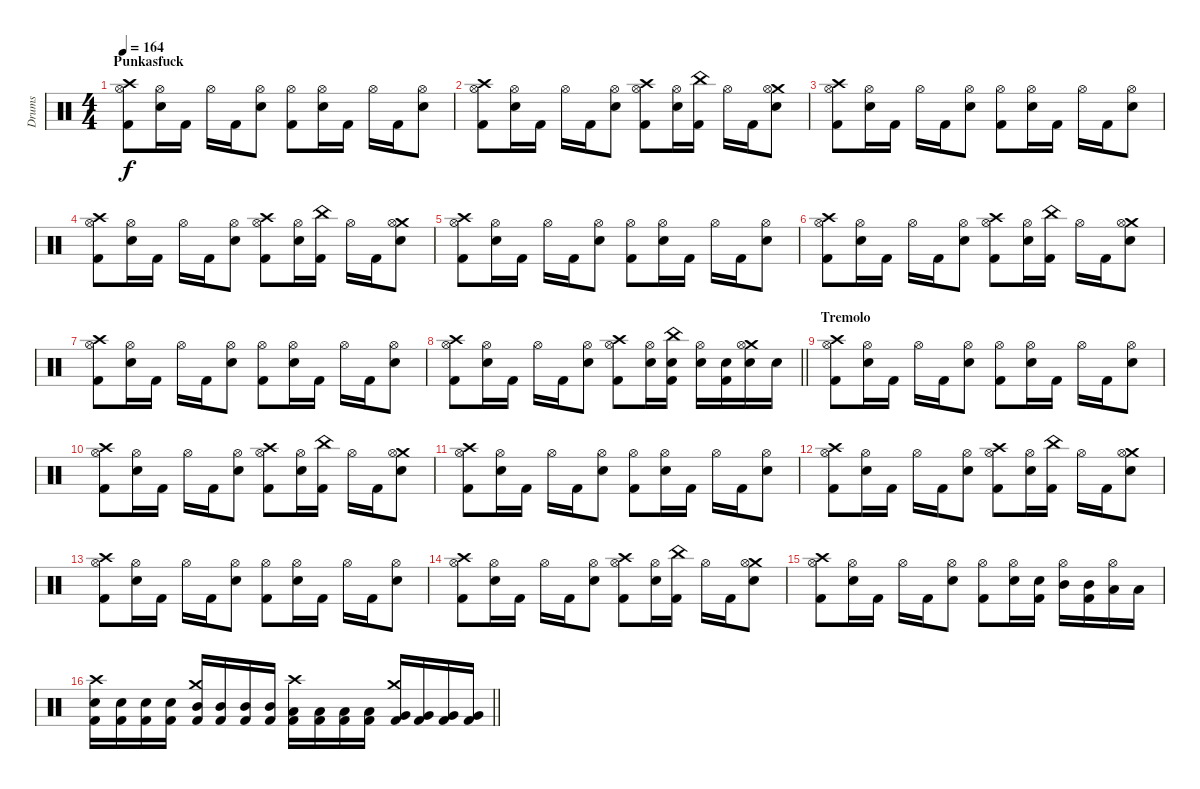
\track ("Drums" "Drums") {instrument percussion}
\staff {score}
\articulation defaults
\ts (4 4)
\section ("" "Punkasfuck")
\tempo 164
\clef neutral
\ks c
("Crash high (hit)" "Hi-Hat (open)" "Kick (hit) 2").8{dy f} ("Hi-Hat (open)" "Snare (hit) 2").16 "Kick (hit) 2".16 "Hi-Hat (open)".16 "Kick (hit) 2".16 ("Hi-Hat (open)" "Snare (hit) 2").8 ("Hi-Hat (open)" "Kick (hit) 2").8 ("Hi-Hat (open)" "Snare (hit) 2").16 "Kick (hit) 2".16 "Hi-Hat (open)".16 "Kick (hit) 2".16 ("Hi-Hat (open)" "Snare (hit) 2").8 |
("Crash high (hit)" "Hi-Hat (open)" "Kick (hit) 2").8 ("Hi-Hat (open)" "Snare (hit) 2").16 "Kick (hit) 2".16 "Hi-Hat (open)".16 "Kick (hit) 2".16 ("Hi-Hat (open)" "Snare (hit) 2").8 ("Crash high (hit)" "Hi-Hat (open)" "Kick (hit) 2").8 ("Hi-Hat (open)" "Snare (hit) 2").16 ("China (hit)" "Kick (hit) 2").16 "Hi-Hat (open)".16 "Kick (hit) 2".16 ("Crash medium (hit)" "Hi-Hat (open)" "Snare (hit) 2").8 |
("Crash high (hit)" "Hi-Hat (open)" "Kick (hit) 2").8 ("Hi-Hat (open)" "Snare (hit) 2").16 "Kick (hit) 2".16 "Hi-Hat (open)".16 "Kick (hit) 2".16 ("Hi-Hat (open)" "Snare (hit) 2").8 ("Hi-Hat (open)" "Kick (hit) 2").8 ("Hi-Hat (open)" "Snare (hit) 2").16 "Kick (hit) 2".16 "Hi-Hat (open)".16 "Kick (hit) 2".16 ("Hi-Hat (open)" "Snare (hit) 2").8 |
("Crash high (hit)" "Hi-Hat (open)" "Kick (hit) 2").8 ("Hi-Hat (open)" "Snare (hit) 2").16 "Kick (hit) 2".16 "Hi-Hat (open)".16 "Kick (hit) 2".16 ("Hi-Hat (open)" "Snare (hit) 2").8 ("Crash high (hit)" "Hi-Hat (open)" "Kick (hit) 2").8 ("Hi-Hat (open)" "Snare (hit) 2").16 ("China (hit)" "Kick (hit) 2").16 "Hi-Hat (open)".16 "Kick (hit) 2".16 ("Crash medium (hit)" "Hi-Hat (open)" "Snare (hit) 2").8 |
("Crash high (hit)" "Hi-Hat (open)" "Kick (hit) 2").8 ("Hi-Hat (open)" "Snare (hit) 2").16 "Kick (hit) 2".16 "Hi-Hat (open)".16 "Kick (hit) 2".16 ("Hi-Hat (open)" "Snare (hit) 2").8 ("Hi-Hat (open)" "Kick (hit) 2").8 ("Hi-Hat (open)" "Snare (hit) 2").16 "Kick (hit) 2".16 "Hi-Hat (open)".16 "Kick (hit) 2".16 ("Hi-Hat (open)" "Snare (hit) 2").8 |
("Crash high (hit)" "Hi-Hat (open)" "Kick (hit) 2").8 ("Hi-Hat (open)" "Snare (hit) 2").16 "Kick (hit) 2".16 "Hi-Hat (open)".16 "Kick (hit) 2".16 ("Hi-Hat (open)" "Snare (hit) 2").8 ("Crash high (hit)" "Hi-Hat (open)" "Kick (hit) 2").8 ("Hi-Hat (open)" "Snare (hit) 2").16 ("China (hit)" "Kick (hit) 2").16 "Hi-Hat (open)".16 "Kick (hit) 2".16 ("Crash medium (hit)" "Hi-Hat (open)" "Snare (hit) 2").8 |
("Crash high (hit)" "Hi-Hat (open)" "Kick (hit) 2").8 ("Hi-Hat (open)" "Snare (hit) 2").16 "Kick (hit) 2".16 "Hi-Hat (open)".16 "Kick (hit) 2".16 ("Hi-Hat (open)" "Snare (hit) 2").8 ("Hi-Hat (open)" "Kick (hit) 2").8 ("Hi-Hat (open)" "Snare (hit) 2").16 "Kick (hit) 2".16 "Hi-Hat (open)".16 "Kick (hit) 2".16 ("Hi-Hat (open)" "Snare (hit) 2").8 |
\barLineRight lightlight
("Crash high (hit)" "Hi-Hat (open)" "Kick (hit) 2").8 ("Hi-Hat (open)" "Snare (hit) 2").16 "Kick (hit) 2".16 "Hi-Hat (open)".16 "Kick (hit) 2".16 ("Hi-Hat (open)" "Snare (hit) 2").8 ("Crash high (hit)" "Hi-Hat (open)" "Kick (hit) 2").8 ("Hi-Hat (open)" "Snare (hit) 2").16 ("China (hit)" "Snare (hit) 2" "Kick (hit) 2").16 ("Hi-Hat (open)" "Snare (hit) 2").16 ("Snare (hit) 2" "Kick (hit) 2").16 ("Crash medium (hit)" "Hi-Hat (open)" "Snare (hit) 2").16 "Snare (hit) 2".16 |
\section ("" "Tremolo")
("Crash high (hit)" "Hi-Hat (open)" "Kick (hit) 2").8 ("Hi-Hat (open)" "Snare (hit) 2").16 "Kick (hit) 2".16 "Hi-Hat (open)".16 "Kick (hit) 2".16 ("Hi-Hat (open)" "Snare (hit) 2").8 ("Hi-Hat (open)" "Kick (hit) 2").8 ("Hi-Hat (open)" "Snare (hit) 2").16 "Kick (hit) 2".16 "Hi-Hat (open)".16 "Kick (hit) 2".16 ("Hi-Hat (open)" "Snare (hit) 2").8 |
("Crash high (hit)" "Hi-Hat (open)" "Kick (hit) 2").8 ("Hi-Hat (open)" "Snare (hit) 2").16 "Kick (hit) 2".16 "Hi-Hat (open)".16 "Kick (hit) 2".16 ("Hi-Hat (open)" "Snare (hit) 2").8 ("Crash high (hit)" "Hi-Hat (open)" "Kick (hit) 2").8 ("Hi-Hat (open)" "Snare (hit) 2").16 ("China (hit)" "Kick (hit) 2").16 "Hi-Hat (open)".16 "Kick (hit) 2".16 ("Crash medium (hit)" "Hi-Hat (open)" "Snare (hit) 2").8 |
("Crash high (hit)" "Hi-Hat (open)" "Kick (hit) 2").8 ("Hi-Hat (open)" "Snare (hit) 2").16 "Kick (hit) 2".16 "Hi-Hat (open)".16 "Kick (hit) 2".16 ("Hi-Hat (open)" "Snare (hit) 2").8 ("Hi-Hat (open)" "Kick (hit) 2").8 ("Hi-Hat (open)" "Snare (hit) 2").16 "Kick (hit) 2".16 "Hi-Hat (open)".16 "Kick (hit) 2".16 ("Hi-Hat (open)" "Snare (hit) 2").8 |
("Crash high (hit)" "Hi-Hat (open)" "Kick (hit) 2").8 ("Hi-Hat (open)" "Snare (hit) 2").16 "Kick (hit) 2".16 "Hi-Hat (open)".16 "Kick (hit) 2".16 ("Hi-Hat (open)" "Snare (hit) 2").8 ("Crash high (hit)" "Hi-Hat (open)" "Kick (hit) 2").8 ("Hi-Hat (open)" "Snare (hit) 2").16 ("China (hit)" "Kick (hit) 2").16 "Hi-Hat (open)".16 "Kick (hit) 2".16 ("Crash medium (hit)" "Hi-Hat (open)" "Snare (hit) 2").8 |
("Crash high (hit)" "Hi-Hat (open)" "Kick (hit) 2").8 ("Hi-Hat (open)" "Snare (hit) 2").16 "Kick (hit) 2".16 "Hi-Hat (open)".16 "Kick (hit) 2".16 ("Hi-Hat (open)" "Snare (hit) 2").8 ("Hi-Hat (open)" "Kick (hit) 2").8 ("Hi-Hat (open)" "Snare (hit) 2").16 "Kick (hit) 2".16 "Hi-Hat (open)".16 "Kick (hit) 2".16 ("Hi-Hat (open)" "Snare (hit) 2").8 |
("Crash high (hit)" "Hi-Hat (open)" "Kick (hit) 2").8 ("Hi-Hat (open)" "Snare (hit) 2").16 "Kick (hit) 2".16 "Hi-Hat (open)".16 "Kick (hit) 2".16 ("Hi-Hat (open)" "Snare (hit) 2").8 ("Crash high (hit)" "Hi-Hat (open)" "Kick (hit) 2").8 ("Hi-Hat (open)" "Snare (hit) 2").16 ("China (hit)" "Kick (hit) 2").16 "Hi-Hat (open)".16 "Kick (hit) 2".16 ("Crash medium (hit)" "Hi-Hat (open)" "Snare (hit) 2").8 |
("Crash high (hit)" "Hi-Hat (open)" "Kick (hit) 2").8 ("Hi-Hat (open)" "Snare (hit) 2").16 "Kick (hit) 2".16 "Hi-Hat (open)".16 "Kick (hit) 2".16 ("Hi-Hat (open)" "Snare (hit) 2").8 ("Hi-Hat (open)" "Kick (hit) 2").8 ("Hi-Hat (open)" "Snare (hit) 2").16 ("Snare (hit) 2" "Kick (hit) 2").16 ("Hi-Hat (open)" "Mid Tom (hit)").16 ("Mid Tom (hit)" "Kick (hit) 2").16 ("Hi-Hat (open)" "Low Tom (hit)").16 "Low Tom (hit)".16 |
\barLineRight lightlight
("Crash high (hit)" "Snare (hit) 2" "Kick (hit) 2").16 ("Snare (hit) 2" "Kick (hit) 2").16 ("Snare (hit) 2" "Kick (hit) 2").16 ("Snare (hit) 2" "Kick (hit) 2").16 ("Crash medium (hit)" "Mid Tom (hit)" "Kick (hit) 2").16 ("Mid Tom (hit)" "Kick (hit) 2").16 ("Mid Tom (hit)" "Kick (hit) 2").16 ("Mid Tom (hit)" "Kick (hit) 2").16 ("Crash high (hit)" "Low Tom (hit)" "Kick (hit) 2").16 ("Low Tom (hit)" "Kick (hit) 2").16 ("Low Tom (hit)" "Kick (hit) 2").16 ("Low Tom (hit)" "Kick (hit) 2").16 ("Crash medium (hit)" "Very Low Tom (hit)" "Kick (hit) 2").16 ("Very Low Tom (hit)" "Kick (hit) 2").16 ("Very Low Tom (hit)" "Kick (hit) 2").16 ("Very Low Tom (hit)" "Kick (hit) 2").16
